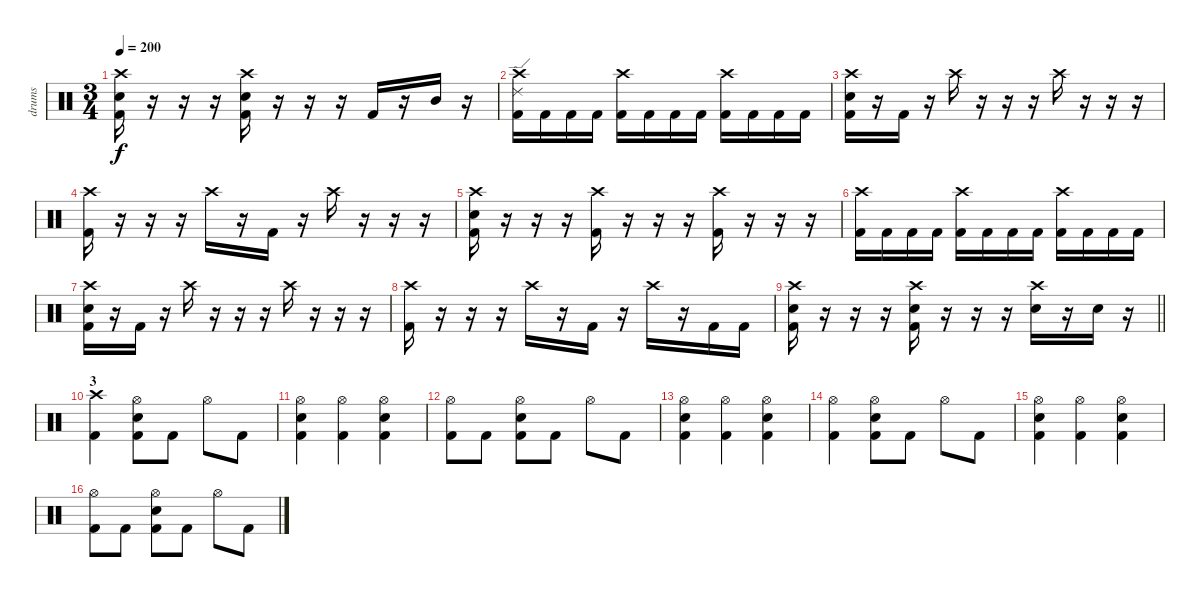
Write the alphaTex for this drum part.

\track ("drums" "drums") {instrument percussion}
\staff {score}
\articulation defaults
\ts (3 4)
\tempo 200
\clef neutral
\ks c
("Crash high (hit)" "Electric Snare (hit)" "Kick (hit) 2").16{dy f} r.16 r.16 r.16 ("Crash high (hit)" "Kick (hit) 2" "Electric Snare (hit)").16 r.16 r.16 r.16 "Kick (hit) 2".16 r.16 "Mid Tom (hit)".16 r.16 |
("Crash high (hit)" "Ride (edge) 2" "Kick (hit) 2").16 "Kick (hit) 2".16 "Kick (hit) 2".16 "Kick (hit) 2".16 ("Crash high (hit)" "Kick (hit) 2").16 "Kick (hit) 2".16 "Kick (hit) 2".16 "Kick (hit) 2".16 ("Kick (hit) 2" "Crash high (hit)").16 "Kick (hit) 2".16 "Kick (hit) 2".16 "Kick (hit) 2".16 |
("Crash high (hit)" "Electric Snare (hit)" "Kick (hit) 2").16 r.16 "Kick (hit) 2".16 r.16 "Crash high (hit)".16 r.16 r.16 r.16 "Crash high (hit)".16 r.16 r.16 r.16 |
("Crash high (hit)" "Kick (hit) 2").16 r.16 r.16 r.16 "Crash high (hit)".16 r.16 "Kick (hit) 2".16 r.16 "Crash high (hit)".16 r.16 r.16 r.16 |
("Crash high (hit)" "Electric Snare (hit)" "Kick (hit) 2").16 r.16 r.16 r.16 ("Crash high (hit)" "Kick (hit) 2").16 r.16 r.16 r.16 ("Crash high (hit)" "Kick (hit) 2").16 r.16 r.16 r.16 |
("Crash high (hit)" "Kick (hit) 2").16 "Kick (hit) 2".16 "Kick (hit) 2".16 "Kick (hit) 2".16 ("Crash high (hit)" "Kick (hit) 2").16 "Kick (hit) 2".16 "Kick (hit) 2".16 "Kick (hit) 2".16 ("Kick (hit) 2" "Crash high (hit)").16 "Kick (hit) 2".16 "Kick (hit) 2".16 "Kick (hit) 2".16 |
("Crash high (hit)" "Electric Snare (hit)" "Kick (hit) 2").16 r.16 "Kick (hit) 2".16 r.16 "Crash high (hit)".16 r.16 r.16 r.16 "Crash high (hit)".16 r.16 r.16 r.16 |
("Crash high (hit)" "Kick (hit) 2").16 r.16 r.16 r.16 "Crash high (hit)".16 r.16 "Kick (hit) 2".16 r.16 "Crash high (hit)".16 r.16 "Kick (hit) 2".16 "Kick (hit) 2".16 |
\barLineRight lightlight
("Crash high (hit)" "Electric Snare (hit)" "Kick (hit) 2").16 r.16 r.16 r.16 ("Crash high (hit)" "Kick (hit) 2" "Electric Snare (hit)").16 r.16 r.16 r.16 ("Crash high (hit)" "Electric Snare (hit)").16 r.16 "Electric Snare (hit)".16 r.16 |
\section ("" "3")
("Crash high (hit)" "Kick (hit) 2").4 ("Hi-Hat (open)" "Electric Snare (hit)" "Kick (hit) 2").8 "Kick (hit) 2".8 "Hi-Hat (open)".8 "Kick (hit) 2".8 |
("Hi-Hat (open)" "Electric Snare (hit)" "Kick (hit) 2").4 ("Hi-Hat (open)" "Kick (hit) 2").4 ("Hi-Hat (open)" "Electric Snare (hit)" "Kick (hit) 2").4 |
("Hi-Hat (open)" "Kick (hit) 2").8 "Kick (hit) 2".8 ("Hi-Hat (open)" "Electric Snare (hit)" "Kick (hit) 2").8 "Kick (hit) 2".8 "Hi-Hat (open)".8 "Kick (hit) 2".8 |
("Hi-Hat (open)" "Electric Snare (hit)" "Kick (hit) 2").4 ("Hi-Hat (open)" "Kick (hit) 2").4 ("Hi-Hat (open)" "Electric Snare (hit)" "Kick (hit) 2").4 |
("Hi-Hat (open)" "Kick (hit) 2").4 ("Hi-Hat (open)" "Electric Snare (hit)" "Kick (hit) 2").8 "Kick (hit) 2".8 "Hi-Hat (open)".8 "Kick (hit) 2".8 |
("Hi-Hat (open)" "Electric Snare (hit)" "Kick (hit) 2").4 ("Hi-Hat (open)" "Kick (hit) 2").4 ("Hi-Hat (open)" "Electric Snare (hit)" "Kick (hit) 2").4 |
("Hi-Hat (open)" "Kick (hit) 2").8 "Kick (hit) 2".8 ("Hi-Hat (open)" "Electric Snare (hit)" "Kick (hit) 2").8 "Kick (hit) 2".8 "Hi-Hat (open)".8 "Kick (hit) 2".8
